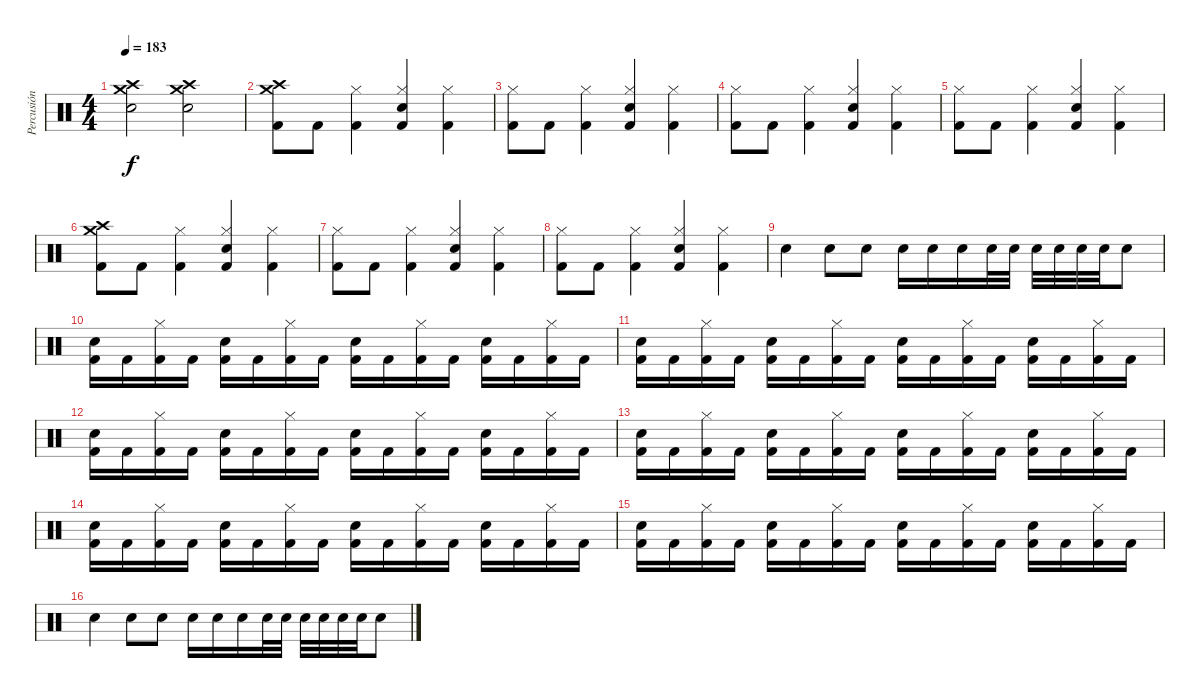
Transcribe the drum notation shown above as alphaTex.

\track ("Percusión" "Percusión") {instrument percussion}
\staff {score}
\articulation defaults
\ts (4 4)
\tempo 183
\clef neutral
\ks c
("Snare (hit) 2" "Crash medium (hit)" "Crash high (hit)").2{dy f} ("Snare (hit) 2" "Crash medium (hit)" "Crash high (hit)").2 |
("Kick (hit) 2" "Crash medium (hit)" "Crash high (hit)").8 "Kick (hit) 2".8 ("Kick (hit) 2" "Hi-Hat (closed)").4 ("Kick (hit) 2" "Electric Snare (hit)" "Hi-Hat (closed)").4 ("Kick (hit) 2" "Hi-Hat (closed)").4 |
("Kick (hit) 2" "Hi-Hat (closed)").8 "Kick (hit) 2".8 ("Kick (hit) 2" "Hi-Hat (closed)").4 ("Kick (hit) 2" "Electric Snare (hit)" "Hi-Hat (closed)").4 ("Kick (hit) 2" "Hi-Hat (closed)").4 |
("Kick (hit) 2" "Hi-Hat (closed)").8 "Kick (hit) 2".8 ("Kick (hit) 2" "Hi-Hat (closed)").4 ("Kick (hit) 2" "Electric Snare (hit)" "Hi-Hat (closed)").4 ("Kick (hit) 2" "Hi-Hat (closed)").4 |
("Kick (hit) 2" "Hi-Hat (closed)").8 "Kick (hit) 2".8 ("Kick (hit) 2" "Hi-Hat (closed)").4 ("Kick (hit) 2" "Electric Snare (hit)" "Hi-Hat (closed)").4 ("Kick (hit) 2" "Hi-Hat (closed)").4 |
("Kick (hit) 2" "Crash medium (hit)" "Crash high (hit)").8 "Kick (hit) 2".8 ("Kick (hit) 2" "Hi-Hat (closed)").4 ("Kick (hit) 2" "Electric Snare (hit)" "Hi-Hat (closed)").4 ("Kick (hit) 2" "Hi-Hat (closed)").4 |
("Kick (hit) 2" "Hi-Hat (closed)").8 "Kick (hit) 2".8 ("Kick (hit) 2" "Hi-Hat (closed)").4 ("Kick (hit) 2" "Electric Snare (hit)" "Hi-Hat (closed)").4 ("Kick (hit) 2" "Hi-Hat (closed)").4 |
("Kick (hit) 2" "Hi-Hat (closed)").8 "Kick (hit) 2".8 ("Kick (hit) 2" "Hi-Hat (closed)").4 ("Kick (hit) 2" "Electric Snare (hit)" "Hi-Hat (closed)").4 ("Kick (hit) 2" "Hi-Hat (closed)").4 |
"Electric Snare (hit)".4 "Electric Snare (hit)".8 "Electric Snare (hit)".8 "Electric Snare (hit)".16 "Electric Snare (hit)".16 "Electric Snare (hit)".16 "Electric Snare (hit)".32 "Electric Snare (hit)".32 "Electric Snare (hit)".32 "Electric Snare (hit)".32 "Electric Snare (hit)".32 "Electric Snare (hit)".32 "Electric Snare (hit)".8 |
("Kick (hit) 2" "Electric Snare (hit)").16 "Kick (hit) 2".16 ("Kick (hit) 2" "Hi-Hat (closed)").16 "Kick (hit) 2".16 ("Kick (hit) 2" "Electric Snare (hit)").16 "Kick (hit) 2".16 ("Kick (hit) 2" "Hi-Hat (closed)").16 "Kick (hit) 2".16 ("Kick (hit) 2" "Electric Snare (hit)").16 "Kick (hit) 2".16 ("Kick (hit) 2" "Hi-Hat (closed)").16 "Kick (hit) 2".16 ("Kick (hit) 2" "Electric Snare (hit)").16 "Kick (hit) 2".16 ("Kick (hit) 2" "Hi-Hat (closed)").16 "Kick (hit) 2".16 |
("Kick (hit) 2" "Electric Snare (hit)").16 "Kick (hit) 2".16 ("Kick (hit) 2" "Hi-Hat (closed)").16 "Kick (hit) 2".16 ("Kick (hit) 2" "Electric Snare (hit)").16 "Kick (hit) 2".16 ("Kick (hit) 2" "Hi-Hat (closed)").16 "Kick (hit) 2".16 ("Kick (hit) 2" "Electric Snare (hit)").16 "Kick (hit) 2".16 ("Kick (hit) 2" "Hi-Hat (closed)").16 "Kick (hit) 2".16 ("Kick (hit) 2" "Electric Snare (hit)").16 "Kick (hit) 2".16 ("Kick (hit) 2" "Hi-Hat (closed)").16 "Kick (hit) 2".16 |
("Kick (hit) 2" "Electric Snare (hit)").16 "Kick (hit) 2".16 ("Kick (hit) 2" "Hi-Hat (closed)").16 "Kick (hit) 2".16 ("Kick (hit) 2" "Electric Snare (hit)").16 "Kick (hit) 2".16 ("Kick (hit) 2" "Hi-Hat (closed)").16 "Kick (hit) 2".16 ("Kick (hit) 2" "Electric Snare (hit)").16 "Kick (hit) 2".16 ("Kick (hit) 2" "Hi-Hat (closed)").16 "Kick (hit) 2".16 ("Kick (hit) 2" "Electric Snare (hit)").16 "Kick (hit) 2".16 ("Kick (hit) 2" "Hi-Hat (closed)").16 "Kick (hit) 2".16 |
("Kick (hit) 2" "Electric Snare (hit)").16 "Kick (hit) 2".16 ("Kick (hit) 2" "Hi-Hat (closed)").16 "Kick (hit) 2".16 ("Kick (hit) 2" "Electric Snare (hit)").16 "Kick (hit) 2".16 ("Kick (hit) 2" "Hi-Hat (closed)").16 "Kick (hit) 2".16 ("Kick (hit) 2" "Electric Snare (hit)").16 "Kick (hit) 2".16 ("Kick (hit) 2" "Hi-Hat (closed)").16 "Kick (hit) 2".16 ("Kick (hit) 2" "Electric Snare (hit)").16 "Kick (hit) 2".16 ("Kick (hit) 2" "Hi-Hat (closed)").16 "Kick (hit) 2".16 |
("Kick (hit) 2" "Electric Snare (hit)").16 "Kick (hit) 2".16 ("Kick (hit) 2" "Hi-Hat (closed)").16 "Kick (hit) 2".16 ("Kick (hit) 2" "Electric Snare (hit)").16 "Kick (hit) 2".16 ("Kick (hit) 2" "Hi-Hat (closed)").16 "Kick (hit) 2".16 ("Kick (hit) 2" "Electric Snare (hit)").16 "Kick (hit) 2".16 ("Kick (hit) 2" "Hi-Hat (closed)").16 "Kick (hit) 2".16 ("Kick (hit) 2" "Electric Snare (hit)").16 "Kick (hit) 2".16 ("Kick (hit) 2" "Hi-Hat (closed)").16 "Kick (hit) 2".16 |
("Kick (hit) 2" "Electric Snare (hit)").16 "Kick (hit) 2".16 ("Kick (hit) 2" "Hi-Hat (closed)").16 "Kick (hit) 2".16 ("Kick (hit) 2" "Electric Snare (hit)").16 "Kick (hit) 2".16 ("Kick (hit) 2" "Hi-Hat (closed)").16 "Kick (hit) 2".16 ("Kick (hit) 2" "Electric Snare (hit)").16 "Kick (hit) 2".16 ("Kick (hit) 2" "Hi-Hat (closed)").16 "Kick (hit) 2".16 ("Kick (hit) 2" "Electric Snare (hit)").16 "Kick (hit) 2".16 ("Kick (hit) 2" "Hi-Hat (closed)").16 "Kick (hit) 2".16 |
"Electric Snare (hit)".4 "Electric Snare (hit)".8 "Electric Snare (hit)".8 "Electric Snare (hit)".16 "Electric Snare (hit)".16 "Electric Snare (hit)".16 "Electric Snare (hit)".32 "Electric Snare (hit)".32 "Electric Snare (hit)".32 "Electric Snare (hit)".32 "Electric Snare (hit)".32 "Electric Snare (hit)".32 "Electric Snare (hit)".8
